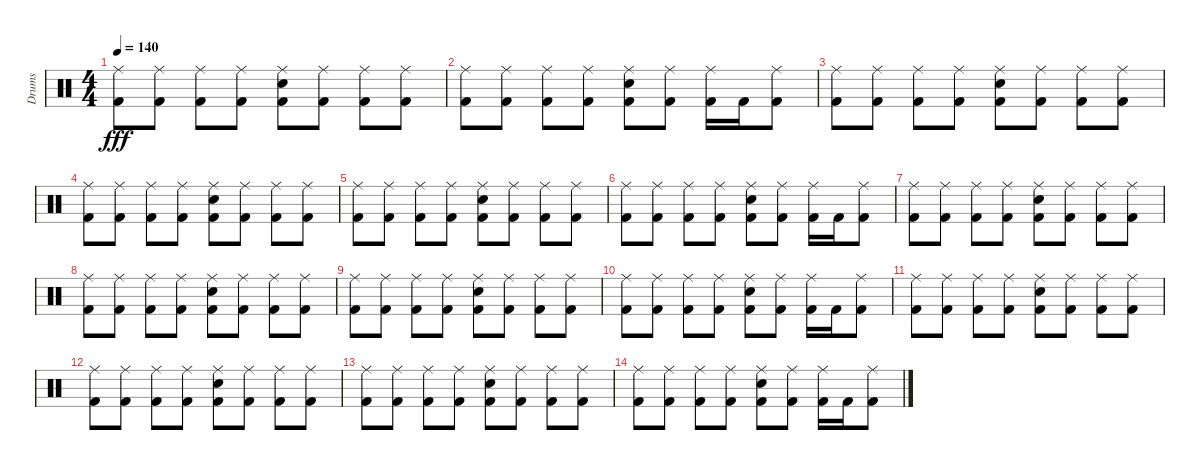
\track ("Drums" "Drums") {instrument percussion}
\staff {score}
\articulation defaults
\ts (4 4)
\tempo 140
\clef neutral
\ks c
("Kick (hit) 2" "Ride (middle)").8{dy fff volume 13} ("Kick (hit) 2" "Ride (middle)").8 ("Kick (hit) 2" "Ride (middle)").8 ("Kick (hit) 2" "Ride (middle)").8 ("Kick (hit) 2" "Electric Snare (hit)" "Ride (middle)").8 ("Kick (hit) 2" "Ride (middle)").8 ("Kick (hit) 2" "Ride (middle)").8 ("Kick (hit) 2" "Ride (middle)").8 |
("Kick (hit) 2" "Ride (middle)").8{volume 12} ("Kick (hit) 2" "Ride (middle)").8 ("Kick (hit) 2" "Ride (middle)").8 ("Kick (hit) 2" "Ride (middle)").8 ("Kick (hit) 2" "Electric Snare (hit)" "Ride (middle)").8 ("Kick (hit) 2" "Ride (middle)").8 ("Kick (hit) 2" "Ride (middle)").16 "Kick (hit) 2".16 ("Kick (hit) 2" "Ride (middle)").8 |
("Kick (hit) 2" "Ride (middle)").8{volume 11} ("Kick (hit) 2" "Ride (middle)").8 ("Kick (hit) 2" "Ride (middle)").8 ("Kick (hit) 2" "Ride (middle)").8 ("Kick (hit) 2" "Electric Snare (hit)" "Ride (middle)").8 ("Kick (hit) 2" "Ride (middle)").8 ("Kick (hit) 2" "Ride (middle)").8 ("Kick (hit) 2" "Ride (middle)").8 |
("Kick (hit) 2" "Ride (middle)").8{volume 10} ("Kick (hit) 2" "Ride (middle)").8 ("Kick (hit) 2" "Ride (middle)").8 ("Kick (hit) 2" "Ride (middle)").8 ("Kick (hit) 2" "Electric Snare (hit)" "Ride (middle)").8 ("Kick (hit) 2" "Ride (middle)").8 ("Kick (hit) 2" "Ride (middle)").8 ("Kick (hit) 2" "Ride (middle)").8 |
("Kick (hit) 2" "Ride (middle)").8{volume 9} ("Kick (hit) 2" "Ride (middle)").8 ("Kick (hit) 2" "Ride (middle)").8 ("Kick (hit) 2" "Ride (middle)").8 ("Kick (hit) 2" "Electric Snare (hit)" "Ride (middle)").8 ("Kick (hit) 2" "Ride (middle)").8 ("Kick (hit) 2" "Ride (middle)").8 ("Kick (hit) 2" "Ride (middle)").8 |
("Kick (hit) 2" "Ride (middle)").8{volume 8} ("Kick (hit) 2" "Ride (middle)").8 ("Kick (hit) 2" "Ride (middle)").8 ("Kick (hit) 2" "Ride (middle)").8 ("Kick (hit) 2" "Electric Snare (hit)" "Ride (middle)").8 ("Kick (hit) 2" "Ride (middle)").8 ("Kick (hit) 2" "Ride (middle)").16 "Kick (hit) 2".16 ("Kick (hit) 2" "Ride (middle)").8 |
("Kick (hit) 2" "Ride (middle)").8{volume 7} ("Kick (hit) 2" "Ride (middle)").8 ("Kick (hit) 2" "Ride (middle)").8 ("Kick (hit) 2" "Ride (middle)").8 ("Kick (hit) 2" "Electric Snare (hit)" "Ride (middle)").8 ("Kick (hit) 2" "Ride (middle)").8 ("Kick (hit) 2" "Ride (middle)").8 ("Kick (hit) 2" "Ride (middle)").8 |
("Kick (hit) 2" "Ride (middle)").8{volume 6} ("Kick (hit) 2" "Ride (middle)").8 ("Kick (hit) 2" "Ride (middle)").8 ("Kick (hit) 2" "Ride (middle)").8 ("Kick (hit) 2" "Electric Snare (hit)" "Ride (middle)").8 ("Kick (hit) 2" "Ride (middle)").8 ("Kick (hit) 2" "Ride (middle)").8 ("Kick (hit) 2" "Ride (middle)").8 |
("Kick (hit) 2" "Ride (middle)").8{volume 5} ("Kick (hit) 2" "Ride (middle)").8 ("Kick (hit) 2" "Ride (middle)").8 ("Kick (hit) 2" "Ride (middle)").8 ("Kick (hit) 2" "Electric Snare (hit)" "Ride (middle)").8 ("Kick (hit) 2" "Ride (middle)").8 ("Kick (hit) 2" "Ride (middle)").8 ("Kick (hit) 2" "Ride (middle)").8 |
("Kick (hit) 2" "Ride (middle)").8{volume 4} ("Kick (hit) 2" "Ride (middle)").8 ("Kick (hit) 2" "Ride (middle)").8 ("Kick (hit) 2" "Ride (middle)").8 ("Kick (hit) 2" "Electric Snare (hit)" "Ride (middle)").8 ("Kick (hit) 2" "Ride (middle)").8 ("Kick (hit) 2" "Ride (middle)").16 "Kick (hit) 2".16 ("Kick (hit) 2" "Ride (middle)").8 |
("Kick (hit) 2" "Ride (middle)").8{volume 3} ("Kick (hit) 2" "Ride (middle)").8 ("Kick (hit) 2" "Ride (middle)").8 ("Kick (hit) 2" "Ride (middle)").8 ("Kick (hit) 2" "Electric Snare (hit)" "Ride (middle)").8 ("Kick (hit) 2" "Ride (middle)").8 ("Kick (hit) 2" "Ride (middle)").8 ("Kick (hit) 2" "Ride (middle)").8 |
("Kick (hit) 2" "Ride (middle)").8{volume 2} ("Kick (hit) 2" "Ride (middle)").8 ("Kick (hit) 2" "Ride (middle)").8 ("Kick (hit) 2" "Ride (middle)").8 ("Kick (hit) 2" "Electric Snare (hit)" "Ride (middle)").8 ("Kick (hit) 2" "Ride (middle)").8 ("Kick (hit) 2" "Ride (middle)").8 ("Kick (hit) 2" "Ride (middle)").8 |
("Kick (hit) 2" "Ride (middle)").8{volume 1} ("Kick (hit) 2" "Ride (middle)").8 ("Kick (hit) 2" "Ride (middle)").8 ("Kick (hit) 2" "Ride (middle)").8 ("Kick (hit) 2" "Electric Snare (hit)" "Ride (middle)").8 ("Kick (hit) 2" "Ride (middle)").8 ("Kick (hit) 2" "Ride (middle)").8 ("Kick (hit) 2" "Ride (middle)").8 |
("Kick (hit) 2" "Ride (middle)").8{volume 0} ("Kick (hit) 2" "Ride (middle)").8 ("Kick (hit) 2" "Ride (middle)").8 ("Kick (hit) 2" "Ride (middle)").8 ("Kick (hit) 2" "Electric Snare (hit)" "Ride (middle)").8 ("Kick (hit) 2" "Ride (middle)").8 ("Kick (hit) 2" "Ride (middle)").16 "Kick (hit) 2".16 ("Kick (hit) 2" "Ride (middle)").8
